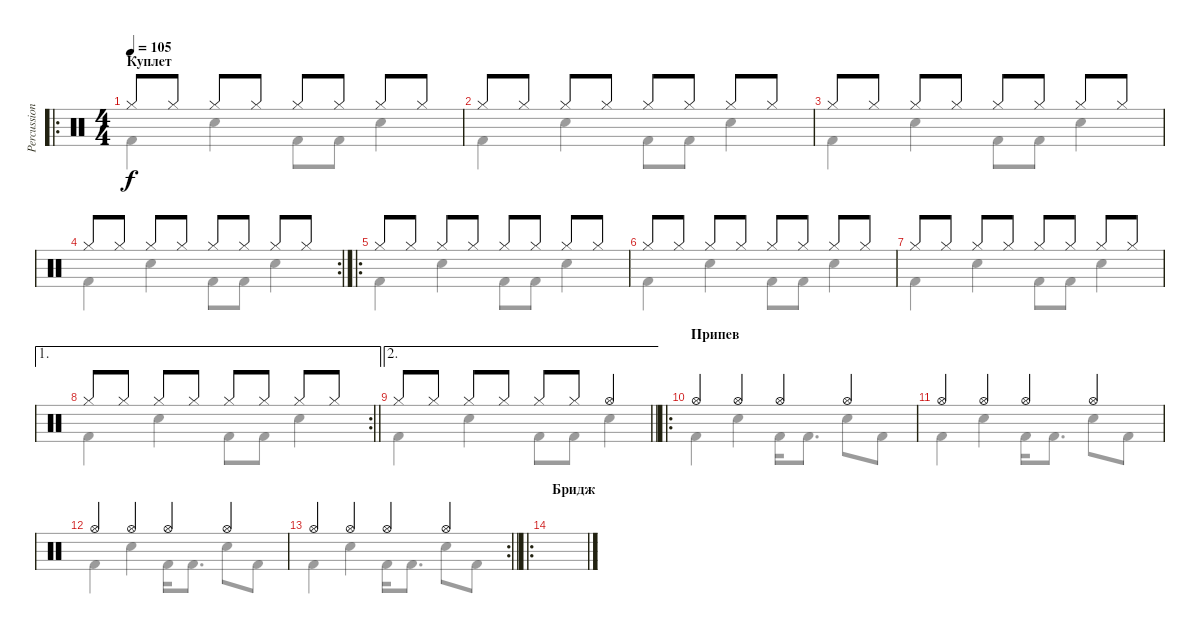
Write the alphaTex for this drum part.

\track ("Percussion" "Percussion") {instrument percussion}
\staff {score}
\articulation defaults
\voice
\ro
\ts (4 4)
\section ("" "Куплет")
\tempo 105
\clef neutral
\ks c "Hi-Hat (closed)".8{dy f} "Hi-Hat (closed)".8 "Hi-Hat (closed)".8 "Hi-Hat (closed)".8 "Hi-Hat (closed)".8 "Hi-Hat (closed)".8 "Hi-Hat (closed)".8 "Hi-Hat (closed)".8
|
"Hi-Hat (closed)".8 "Hi-Hat (closed)".8 "Hi-Hat (closed)".8 "Hi-Hat (closed)".8 "Hi-Hat (closed)".8 "Hi-Hat (closed)".8 "Hi-Hat (closed)".8 "Hi-Hat (closed)".8 |
"Hi-Hat (closed)".8 "Hi-Hat (closed)".8 "Hi-Hat (closed)".8 "Hi-Hat (closed)".8 "Hi-Hat (closed)".8 "Hi-Hat (closed)".8 "Hi-Hat (closed)".8 "Hi-Hat (closed)".8 |
\rc 2 "Hi-Hat (closed)".8 "Hi-Hat (closed)".8 "Hi-Hat (closed)".8 "Hi-Hat (closed)".8 "Hi-Hat (closed)".8 "Hi-Hat (closed)".8 "Hi-Hat (closed)".8 "Hi-Hat (closed)".8
|
\ro "Hi-Hat (closed)".8 "Hi-Hat (closed)".8 "Hi-Hat (closed)".8 "Hi-Hat (closed)".8 "Hi-Hat (closed)".8 "Hi-Hat (closed)".8 "Hi-Hat (closed)".8 "Hi-Hat (closed)".8
|
"Hi-Hat (closed)".8 "Hi-Hat (closed)".8 "Hi-Hat (closed)".8 "Hi-Hat (closed)".8 "Hi-Hat (closed)".8 "Hi-Hat (closed)".8 "Hi-Hat (closed)".8 "Hi-Hat (closed)".8 |
"Hi-Hat (closed)".8 "Hi-Hat (closed)".8 "Hi-Hat (closed)".8 "Hi-Hat (closed)".8 "Hi-Hat (closed)".8 "Hi-Hat (closed)".8 "Hi-Hat (closed)".8 "Hi-Hat (closed)".8 |
\ae 1
\rc 2
\barLineRight lightlight "Hi-Hat (closed)".8 "Hi-Hat (closed)".8 "Hi-Hat (closed)".8 "Hi-Hat (closed)".8 "Hi-Hat (closed)".8 "Hi-Hat (closed)".8 "Hi-Hat (closed)".8 "Hi-Hat (closed)".8
|
\ae 2
\barLineRight lightlight "Hi-Hat (closed)".8 "Hi-Hat (closed)".8 "Hi-Hat (closed)".8 "Hi-Hat (closed)".8 "Hi-Hat (closed)".8 "Hi-Hat (closed)".8 "Hi-Hat (open)".4
|
\ro
\section ("" "Припев")
"Hi-Hat (open)".4 "Hi-Hat (open)".4 "Hi-Hat (open)".4 "Hi-Hat (open)".4 |
"Hi-Hat (open)".4 "Hi-Hat (open)".4 "Hi-Hat (open)".4 "Hi-Hat (open)".4 |
"Hi-Hat (open)".4 "Hi-Hat (open)".4 "Hi-Hat (open)".4 "Hi-Hat (open)".4 |
\rc 2
\barLineRight lightlight "Hi-Hat (open)".4 "Hi-Hat (open)".4 "Hi-Hat (open)".4 "Hi-Hat (open)".4
|
\ro
\section ("" "Бридж")
|
|
\voice
\clef neutral
\ottava regular
\simile none
\ks c "Kick (hit) 2".4{dy f} "Electric Snare (hit)".4 "Kick (hit) 2".8 "Kick (hit) 2".8 "Electric Snare (hit)".4
|
"Kick (hit) 2".4 "Electric Snare (hit)".4 "Kick (hit) 2".8 "Kick (hit) 2".8 "Electric Snare (hit)".4 |
"Kick (hit) 2".4 "Electric Snare (hit)".4 "Kick (hit) 2".8 "Kick (hit) 2".8 "Electric Snare (hit)".4 |
"Kick (hit) 2".4 "Electric Snare (hit)".4 "Kick (hit) 2".8 "Kick (hit) 2".8 "Electric Snare (hit)".4 |
"Kick (hit) 2".4 "Electric Snare (hit)".4 "Kick (hit) 2".8 "Kick (hit) 2".8 "Electric Snare (hit)".4 |
"Kick (hit) 2".4 "Electric Snare (hit)".4 "Kick (hit) 2".8 "Kick (hit) 2".8 "Electric Snare (hit)".4 |
"Kick (hit) 2".4 "Electric Snare (hit)".4 "Kick (hit) 2".8 "Kick (hit) 2".8 "Electric Snare (hit)".4 |
\barLineRight lightlight "Kick (hit) 2".4 "Electric Snare (hit)".4 "Kick (hit) 2".8 "Kick (hit) 2".8 "Electric Snare (hit)".4
|
\barLineRight lightlight "Kick (hit) 2".4 "Electric Snare (hit)".4 "Kick (hit) 2".8 "Kick (hit) 2".8 "Electric Snare (hit)".4
|
"Kick (hit) 2".4 "Electric Snare (hit)".4 "Kick (hit) 2".16 "Kick (hit) 2".8{d} "Electric Snare (hit)".8 "Kick (hit) 2".8 |
"Kick (hit) 2".4 "Electric Snare (hit)".4 "Kick (hit) 2".16 "Kick (hit) 2".8{d} "Electric Snare (hit)".8 "Kick (hit) 2".8 |
"Kick (hit) 2".4 "Electric Snare (hit)".4 "Kick (hit) 2".16 "Kick (hit) 2".8{d} "Electric Snare (hit)".8 "Kick (hit) 2".8 |
\barLineRight lightlight "Kick (hit) 2".4 "Electric Snare (hit)".4 "Kick (hit) 2".16 "Kick (hit) 2".8{d} "Electric Snare (hit)".8 "Kick (hit) 2".8
|
|
|
